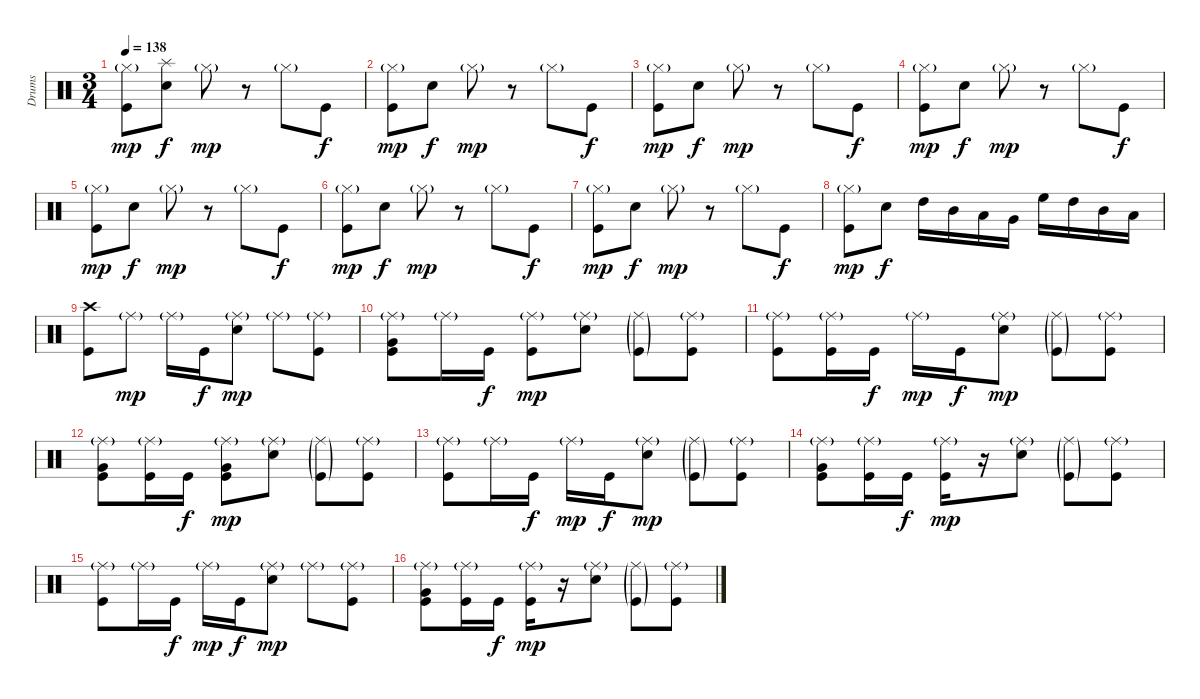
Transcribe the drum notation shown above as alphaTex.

\track ("Drums" "Drums") {instrument percussion}
\staff {score}
\articulation defaults
\ts (3 4)
\tempo 138
\clef neutral
\ks c
("Hi-Hat (closed)"{g} "Kick (hit)").8{dy mp} ("Splash (hit)" "Electric Snare (hit)").8{dy f} "Hi-Hat (closed)"{g}.8{dy mp} r.8 "Hi-Hat (closed)"{g}.8 "Kick (hit)".8{dy f} |
("Hi-Hat (closed)"{g} "Kick (hit)").8{dy mp} "Electric Snare (hit)".8{dy f} "Hi-Hat (closed)"{g}.8{dy mp} r.8 "Hi-Hat (closed)"{g}.8 "Kick (hit)".8{dy f} |
("Hi-Hat (closed)"{g} "Kick (hit)").8{dy mp} "Electric Snare (hit)".8{dy f} "Hi-Hat (closed)"{g}.8{dy mp} r.8 "Hi-Hat (closed)"{g}.8 "Kick (hit)".8{dy f} |
("Hi-Hat (closed)"{g} "Kick (hit)").8{dy mp} "Electric Snare (hit)".8{dy f} "Hi-Hat (closed)"{g}.8{dy mp} r.8 "Hi-Hat (closed)"{g}.8 "Kick (hit)".8{dy f} |
("Hi-Hat (closed)"{g} "Kick (hit)").8{dy mp} "Electric Snare (hit)".8{dy f} "Hi-Hat (closed)"{g}.8{dy mp} r.8 "Hi-Hat (closed)"{g}.8 "Kick (hit)".8{dy f} |
("Hi-Hat (closed)"{g} "Kick (hit)").8{dy mp} "Electric Snare (hit)".8{dy f} "Hi-Hat (closed)"{g}.8{dy mp} r.8 "Hi-Hat (closed)"{g}.8 "Kick (hit)".8{dy f} |
("Hi-Hat (closed)"{g} "Kick (hit)").8{dy mp} "Electric Snare (hit)".8{dy f} "Hi-Hat (closed)"{g}.8{dy mp} r.8 "Hi-Hat (closed)"{g}.8 "Kick (hit)".8{dy f} |
("Hi-Hat (closed)"{g} "Kick (hit)").8{dy mp} "Electric Snare (hit)".8{dy f} "High Tom (hit)".16 "Mid Tom (hit)".16 "Low Tom (hit)".16 "Very Low Tom (hit)".16 "High Floor Tom (hit)".16 "High Tom (hit)".16 "Mid Tom (hit)".16 "Low Tom (hit)".16 |
("Crash high (hit)" "Kick (hit)").8 "Ride (middle)"{g}.8{dy mp} "Ride (middle)"{g}.16 "Kick (hit)".16{dy f} ("Ride (middle)"{g} "Electric Snare (hit)").8{dy mp} "Ride (middle)"{g}.8 ("Ride (middle)"{g} "Kick (hit)").8 |
("Ride (middle)"{g} "Very Low Tom (hit)" "Kick (hit)").8 "Ride (middle)"{g}.16 "Kick (hit)".16{dy f} ("Ride (middle)"{g} "Kick (hit)").8{dy mp} ("Ride (middle)"{g} "Electric Snare (hit)").8 ("Ride (middle)"{g} "Kick (hit)"{g}).8 ("Ride (middle)"{g} "Kick (hit)").8 |
("Ride (middle)"{g} "Kick (hit)").8 ("Ride (middle)"{g} "Kick (hit)").16 "Kick (hit)".16{dy f} "Ride (middle)"{g}.16{dy mp} "Kick (hit)".16{dy f} ("Ride (middle)"{g} "Electric Snare (hit)").8{dy mp} ("Ride (middle)"{g} "Kick (hit)"{g}).8 ("Ride (middle)"{g} "Kick (hit)").8 |
("Ride (middle)"{g} "Very Low Tom (hit)" "Kick (hit)").8 ("Ride (middle)"{g} "Kick (hit)").16 "Kick (hit)".16{dy f} ("Ride (middle)"{g} "Very Low Tom (hit)" "Kick (hit)").8{dy mp} ("Ride (middle)"{g} "Electric Snare (hit)").8 ("Ride (middle)"{g} "Kick (hit)"{g}).8 ("Ride (middle)"{g} "Kick (hit)").8 |
("Ride (middle)"{g} "Kick (hit)").8 "Ride (middle)"{g}.16 "Kick (hit)".16{dy f} "Ride (middle)"{g}.16{dy mp} "Kick (hit)".16{dy f} ("Ride (middle)"{g} "Electric Snare (hit)").8{dy mp} ("Ride (middle)"{g} "Kick (hit)"{g}).8 ("Ride (middle)"{g} "Kick (hit)").8 |
("Ride (middle)"{g} "Very Low Tom (hit)" "Kick (hit)").8 ("Ride (middle)"{g} "Kick (hit)").16 "Kick (hit)".16{dy f} ("Ride (middle)"{g} "Kick (hit)").16{dy mp} r.16 ("Ride (middle)"{g} "Electric Snare (hit)").8 ("Ride (middle)"{g} "Kick (hit)"{g}).8 ("Ride (middle)"{g} "Kick (hit)").8 |
("Ride (middle)"{g} "Kick (hit)").8 "Ride (middle)"{g}.16 "Kick (hit)".16{dy f} "Ride (middle)"{g}.16{dy mp} "Kick (hit)".16{dy f} ("Ride (middle)"{g} "Electric Snare (hit)").8{dy mp} "Ride (middle)"{g}.8 ("Ride (middle)"{g} "Kick (hit)").8 |
("Ride (middle)"{g} "Very Low Tom (hit)" "Kick (hit)").8 ("Ride (middle)"{g} "Kick (hit)").16 "Kick (hit)".16{dy f} ("Ride (middle)"{g} "Kick (hit)").16{dy mp} r.16 ("Ride (middle)"{g} "Electric Snare (hit)").8 ("Ride (middle)"{g} "Kick (hit)"{g}).8 ("Ride (middle)"{g} "Kick (hit)").8
